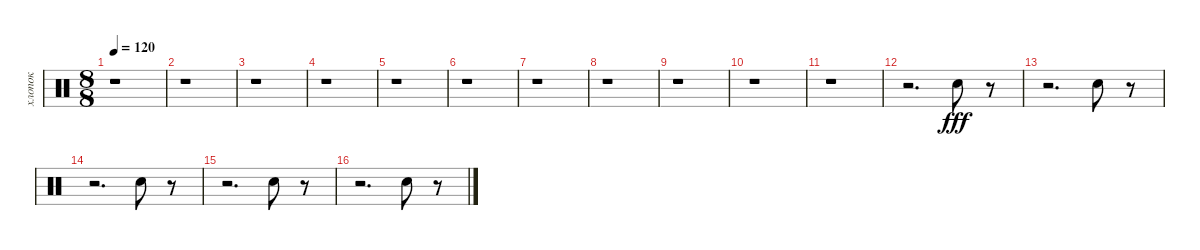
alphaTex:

\track ("хлопок" "хлопок") {instrument percussion}
\staff {score}
\articulation defaults
\ts (8 8)
\tempo 120
\clef neutral
\ks c
r.1{dy fff} |
r.1 |
r.1 |
r.1 |
r.1 |
r.1 |
r.1 |
r.1 |
r.1 |
r.1 |
r.1 |
r.2{d} "Hand Clap (hit)".8 r.8 |
r.2{d} "Hand Clap (hit)".8 r.8 |
r.2{d} "Hand Clap (hit)".8 r.8 |
r.2{d} "Hand Clap (hit)".8 r.8 |
r.2{d} "Hand Clap (hit)".8 r.8
